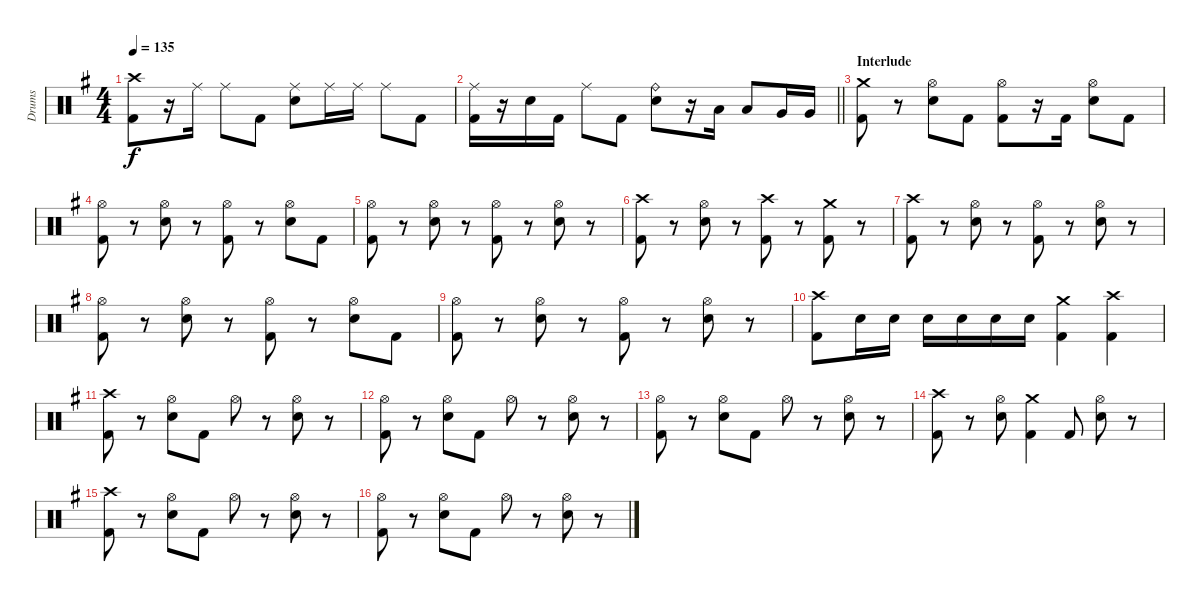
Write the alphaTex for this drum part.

\track ("Drums" "Drums") {instrument percussion}
\staff {score}
\articulation defaults
\ts (4 4)
\tempo 135
\clef neutral
\ks g
("Crash high (hit)" "Kick (hit) 2").8{dy f} r.16 "Ride (middle)".16 "Ride (middle)".8 "Kick (hit) 2".8 ("Ride (middle)" "Snare (hit) 2").8 "Ride (middle)".16 "Ride (middle)".16 "Ride (middle)".8 "Kick (hit) 2".8 |
\barLineRight lightlight
("Ride (middle)" "Kick (hit) 2").16 r.16 "Snare (hit) 2".16 "Kick (hit) 2".16 "Ride (middle)".8 "Kick (hit) 2".8 ("Ride (bell)" "Snare (hit) 2").8 r.16 "Low Tom (hit)".16 "Low Tom (hit)".8 "Very Low Tom (hit)".16 "Very Low Tom (hit)".16 |
\section ("" "Interlude")
("Crash medium (hit)" "Kick (hit) 2").8 r.8 ("Hi-Hat (open)" "Snare (hit) 2").8 "Kick (hit) 2".8 ("Hi-Hat (open)" "Kick (hit) 2").8 r.16 "Kick (hit) 2".16 ("Hi-Hat (open)" "Snare (hit) 2").8 "Kick (hit) 2".8 |
("Hi-Hat (open)" "Kick (hit) 2").8 r.8 ("Hi-Hat (open)" "Snare (hit) 2").8 r.8 ("Hi-Hat (open)" "Kick (hit) 2").8 r.8 ("Hi-Hat (open)" "Snare (hit) 2").8 "Kick (hit) 2".8 |
("Hi-Hat (open)" "Kick (hit) 2").8 r.8 ("Hi-Hat (open)" "Snare (hit) 2").8 r.8 ("Hi-Hat (open)" "Kick (hit) 2").8 r.8 ("Hi-Hat (open)" "Snare (hit) 2").8 r.8 |
("Crash high (hit)" "Kick (hit) 2").8 r.8 ("Hi-Hat (open)" "Snare (hit) 2").8 r.8 ("Crash high (hit)" "Kick (hit) 2").8 r.8 ("Crash medium (hit)" "Kick (hit) 2").8 r.8 |
("Crash high (hit)" "Kick (hit) 2").8 r.8 ("Hi-Hat (open)" "Snare (hit) 2").8 r.8 ("Hi-Hat (open)" "Kick (hit) 2").8 r.8 ("Hi-Hat (open)" "Snare (hit) 2").8 r.8 |
("Hi-Hat (open)" "Kick (hit) 2").8 r.8 ("Hi-Hat (open)" "Snare (hit) 2").8 r.8 ("Hi-Hat (open)" "Kick (hit) 2").8 r.8 ("Hi-Hat (open)" "Snare (hit) 2").8 "Kick (hit) 2".8 |
("Hi-Hat (open)" "Kick (hit) 2").8 r.8 ("Hi-Hat (open)" "Snare (hit) 2").8 r.8 ("Hi-Hat (open)" "Kick (hit) 2").8 r.8 ("Hi-Hat (open)" "Snare (hit) 2").8 r.8 |
("Crash high (hit)" "Kick (hit) 2").8 "Snare (hit) 2".16 "Snare (hit) 2".16 "Snare (hit) 2".16 "Snare (hit) 2".16 "Snare (hit) 2".16 "Snare (hit) 2".16 ("Crash medium (hit)" "Kick (hit) 2").4 ("Crash high (hit)" "Kick (hit) 2").4 |
("Crash high (hit)" "Kick (hit) 2").8 r.8 ("Hi-Hat (open)" "Snare (hit) 2").8 "Kick (hit) 2".8 "Hi-Hat (open)".8 r.8 ("Hi-Hat (open)" "Snare (hit) 2").8 r.8 |
("Hi-Hat (open)" "Kick (hit) 2").8 r.8 ("Hi-Hat (open)" "Snare (hit) 2").8 "Kick (hit) 2".8 "Hi-Hat (open)".8 r.8 ("Hi-Hat (open)" "Snare (hit) 2").8 r.8 |
("Hi-Hat (open)" "Kick (hit) 2").8 r.8 ("Hi-Hat (open)" "Snare (hit) 2").8 "Kick (hit) 2".8 "Hi-Hat (open)".8 r.8 ("Hi-Hat (open)" "Snare (hit) 2").8 r.8 |
("Crash high (hit)" "Kick (hit) 2").8 r.8 ("Hi-Hat (open)" "Snare (hit) 2").8 ("Crash medium (hit)" "Kick (hit) 2").4 "Kick (hit) 2".8 ("Hi-Hat (open)" "Snare (hit) 2").8 r.8 |
("Crash high (hit)" "Kick (hit) 2").8 r.8 ("Hi-Hat (open)" "Snare (hit) 2").8 "Kick (hit) 2".8 "Hi-Hat (open)".8 r.8 ("Hi-Hat (open)" "Snare (hit) 2").8 r.8 |
("Hi-Hat (open)" "Kick (hit) 2").8 r.8 ("Hi-Hat (open)" "Snare (hit) 2").8 "Kick (hit) 2".8 "Hi-Hat (open)".8 r.8 ("Hi-Hat (open)" "Snare (hit) 2").8 r.8
